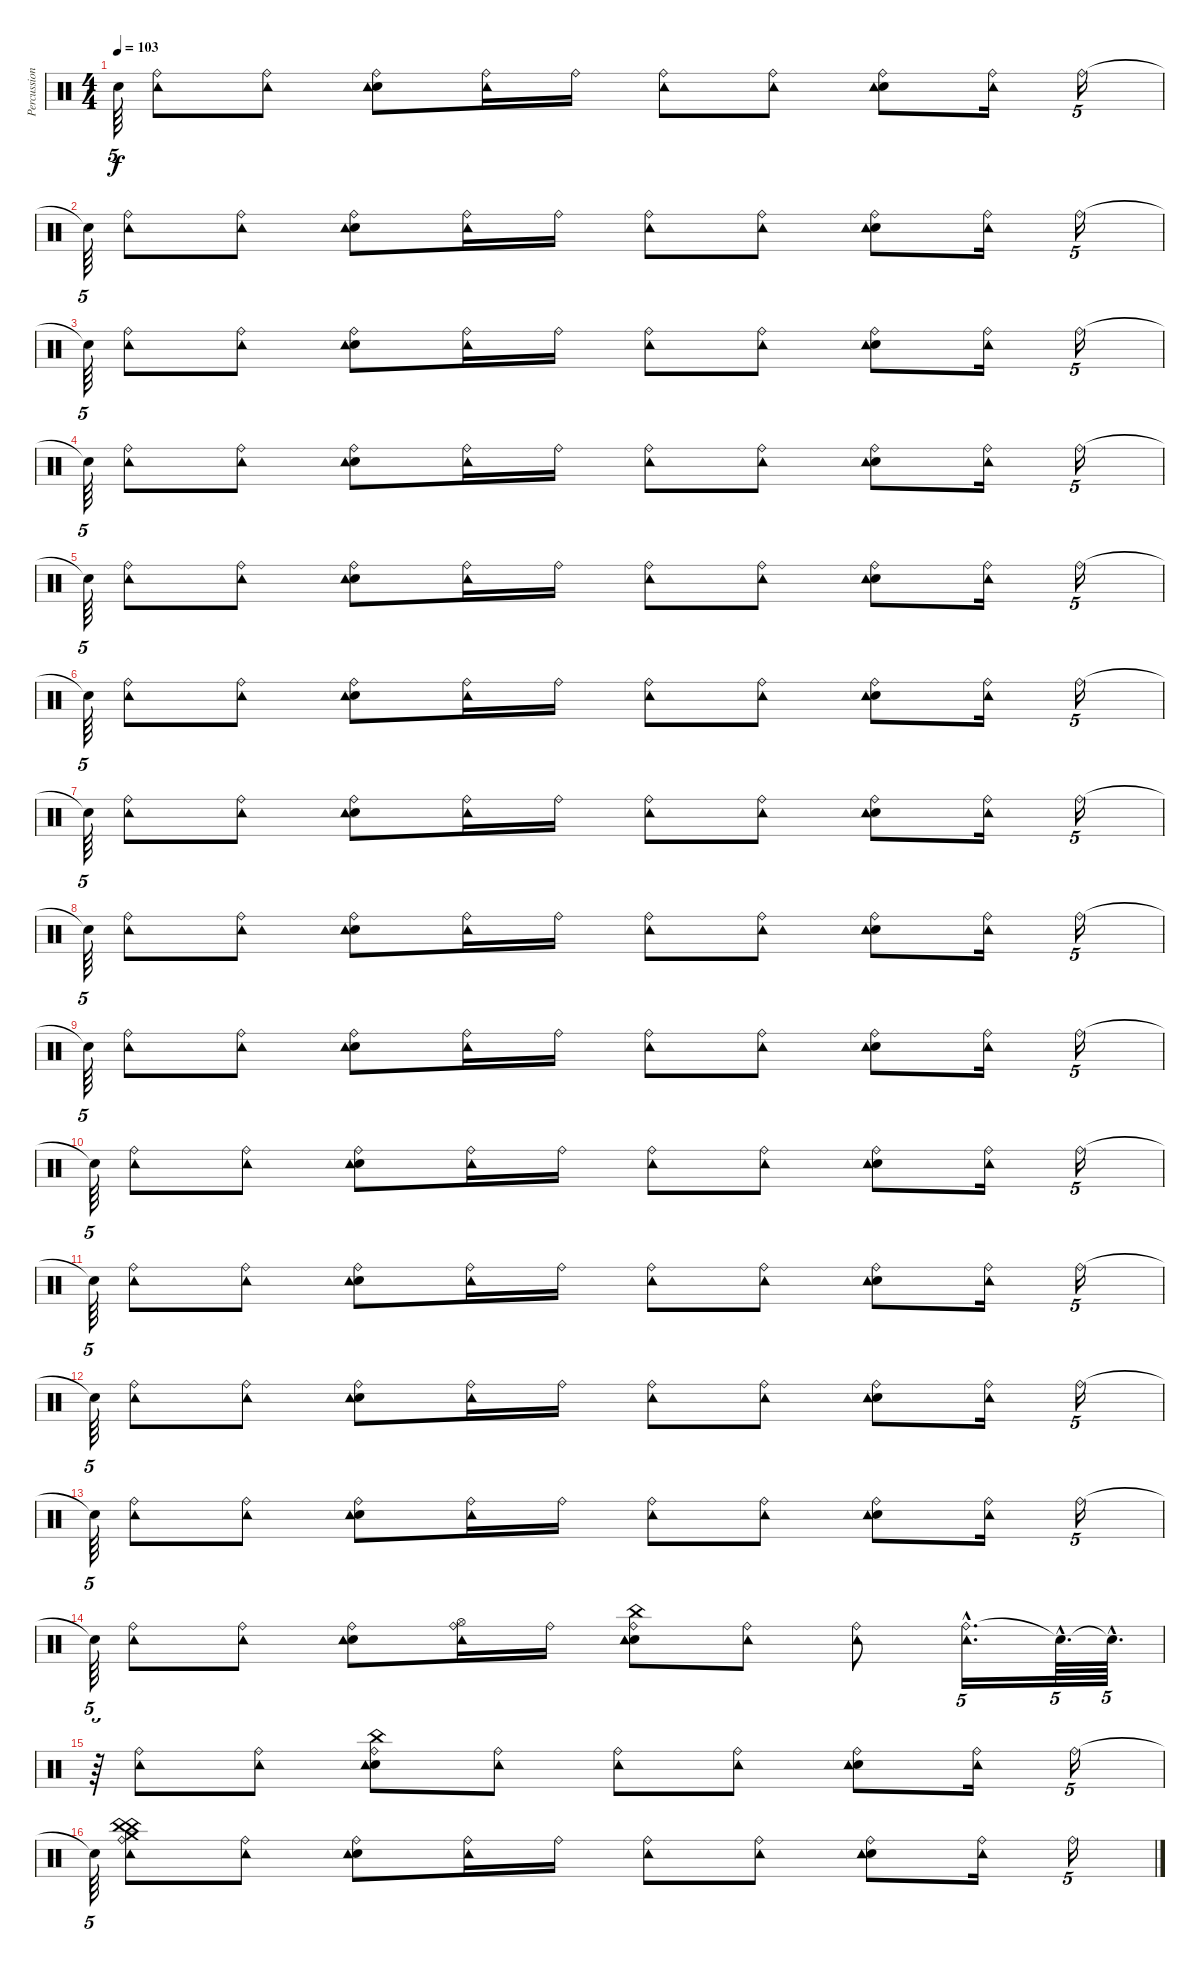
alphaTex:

\track ("Percussion" "Percussion") {instrument percussion}
\staff {score}
\articulation defaults
\ts (4 4)
\tempo 103
\clef neutral
\ks c "Snare (hit)"{t}.64{tu (5 4) dy f}
("Ride (bell)" "Tambourine (hit)").8 ("Ride (bell)" "Tambourine (hit)").8 ("Snare (hit) 2" "Ride (bell)" "Tambourine (hit)").8 ("Ride (bell)" "Tambourine (hit)").16 "Ride (bell)".16 ("Ride (bell)" "Tambourine (hit)").8 ("Ride (bell)" "Tambourine (hit)").8 ("Snare (hit) 2" "Ride (bell)" "Tambourine (hit)").8 ("Ride (bell)" "Tambourine (hit)").16 "Ride (bell)".16{tu (5 4)} |
"Snare (hit)"{t}.64{tu (5 4)} ("Ride (bell)" "Tambourine (hit)").8 ("Ride (bell)" "Tambourine (hit)").8 ("Snare (hit) 2" "Ride (bell)" "Tambourine (hit)").8 ("Ride (bell)" "Tambourine (hit)").16 "Ride (bell)".16 ("Ride (bell)" "Tambourine (hit)").8 ("Ride (bell)" "Tambourine (hit)").8 ("Snare (hit) 2" "Ride (bell)" "Tambourine (hit)").8 ("Ride (bell)" "Tambourine (hit)").16 "Ride (bell)".16{tu (5 4)} |
"Snare (hit)"{t}.64{tu (5 4)} ("Ride (bell)" "Tambourine (hit)").8 ("Ride (bell)" "Tambourine (hit)").8 ("Snare (hit) 2" "Ride (bell)" "Tambourine (hit)").8 ("Ride (bell)" "Tambourine (hit)").16 "Ride (bell)".16 ("Ride (bell)" "Tambourine (hit)").8 ("Ride (bell)" "Tambourine (hit)").8 ("Snare (hit) 2" "Ride (bell)" "Tambourine (hit)").8 ("Ride (bell)" "Tambourine (hit)").16 "Ride (bell)".16{tu (5 4)} |
"Snare (hit)"{t}.64{tu (5 4)} ("Ride (bell)" "Tambourine (hit)").8 ("Ride (bell)" "Tambourine (hit)").8 ("Snare (hit) 2" "Ride (bell)" "Tambourine (hit)").8 ("Ride (bell)" "Tambourine (hit)").16 "Ride (bell)".16 ("Ride (bell)" "Tambourine (hit)").8 ("Ride (bell)" "Tambourine (hit)").8 ("Snare (hit) 2" "Ride (bell)" "Tambourine (hit)").8 ("Ride (bell)" "Tambourine (hit)").16 "Ride (bell)".16{tu (5 4)} |
"Snare (hit)"{t}.64{tu (5 4)} ("Ride (bell)" "Tambourine (hit)").8 ("Ride (bell)" "Tambourine (hit)").8 ("Snare (hit) 2" "Ride (bell)" "Tambourine (hit)").8 ("Ride (bell)" "Tambourine (hit)").16 "Ride (bell)".16 ("Ride (bell)" "Tambourine (hit)").8 ("Ride (bell)" "Tambourine (hit)").8 ("Snare (hit) 2" "Ride (bell)" "Tambourine (hit)").8 ("Ride (bell)" "Tambourine (hit)").16 "Ride (bell)".16{tu (5 4)} |
"Snare (hit)"{t}.64{tu (5 4)} ("Ride (bell)" "Tambourine (hit)").8 ("Ride (bell)" "Tambourine (hit)").8 ("Snare (hit) 2" "Ride (bell)" "Tambourine (hit)").8 ("Ride (bell)" "Tambourine (hit)").16 "Ride (bell)".16 ("Ride (bell)" "Tambourine (hit)").8 ("Ride (bell)" "Tambourine (hit)").8 ("Snare (hit) 2" "Ride (bell)" "Tambourine (hit)").8 ("Ride (bell)" "Tambourine (hit)").16 "Ride (bell)".16{tu (5 4)} |
"Snare (hit)"{t}.64{tu (5 4)} ("Ride (bell)" "Tambourine (hit)").8 ("Ride (bell)" "Tambourine (hit)").8 ("Snare (hit) 2" "Ride (bell)" "Tambourine (hit)").8 ("Ride (bell)" "Tambourine (hit)").16 "Ride (bell)".16 ("Ride (bell)" "Tambourine (hit)").8 ("Ride (bell)" "Tambourine (hit)").8 ("Snare (hit) 2" "Ride (bell)" "Tambourine (hit)").8 ("Ride (bell)" "Tambourine (hit)").16 "Ride (bell)".16{tu (5 4)} |
"Snare (hit)"{t}.64{tu (5 4)} ("Ride (bell)" "Tambourine (hit)").8 ("Ride (bell)" "Tambourine (hit)").8 ("Snare (hit) 2" "Ride (bell)" "Tambourine (hit)").8 ("Ride (bell)" "Tambourine (hit)").16 "Ride (bell)".16 ("Ride (bell)" "Tambourine (hit)").8 ("Ride (bell)" "Tambourine (hit)").8 ("Snare (hit) 2" "Ride (bell)" "Tambourine (hit)").8 ("Ride (bell)" "Tambourine (hit)").16 "Ride (bell)".16{tu (5 4)} |
"Snare (hit)"{t}.64{tu (5 4)} ("Ride (bell)" "Tambourine (hit)").8 ("Ride (bell)" "Tambourine (hit)").8 ("Snare (hit) 2" "Ride (bell)" "Tambourine (hit)").8 ("Ride (bell)" "Tambourine (hit)").16 "Ride (bell)".16 ("Ride (bell)" "Tambourine (hit)").8 ("Ride (bell)" "Tambourine (hit)").8 ("Snare (hit) 2" "Ride (bell)" "Tambourine (hit)").8 ("Ride (bell)" "Tambourine (hit)").16 "Ride (bell)".16{tu (5 4)} |
"Snare (hit)"{t}.64{tu (5 4)} ("Ride (bell)" "Tambourine (hit)").8 ("Ride (bell)" "Tambourine (hit)").8 ("Snare (hit) 2" "Ride (bell)" "Tambourine (hit)").8 ("Ride (bell)" "Tambourine (hit)").16 "Ride (bell)".16 ("Ride (bell)" "Tambourine (hit)").8 ("Ride (bell)" "Tambourine (hit)").8 ("Snare (hit) 2" "Ride (bell)" "Tambourine (hit)").8 ("Ride (bell)" "Tambourine (hit)").16 "Ride (bell)".16{tu (5 4)} |
"Snare (hit)"{t}.64{tu (5 4)} ("Ride (bell)" "Tambourine (hit)").8 ("Ride (bell)" "Tambourine (hit)").8 ("Snare (hit) 2" "Ride (bell)" "Tambourine (hit)").8 ("Ride (bell)" "Tambourine (hit)").16 "Ride (bell)".16 ("Ride (bell)" "Tambourine (hit)").8 ("Ride (bell)" "Tambourine (hit)").8 ("Snare (hit) 2" "Ride (bell)" "Tambourine (hit)").8 ("Ride (bell)" "Tambourine (hit)").16 "Ride (bell)".16{tu (5 4)} |
"Snare (hit)"{t}.64{tu (5 4)} ("Ride (bell)" "Tambourine (hit)").8 ("Ride (bell)" "Tambourine (hit)").8 ("Snare (hit) 2" "Ride (bell)" "Tambourine (hit)").8 ("Ride (bell)" "Tambourine (hit)").16 "Ride (bell)".16 ("Ride (bell)" "Tambourine (hit)").8 ("Ride (bell)" "Tambourine (hit)").8 ("Snare (hit) 2" "Ride (bell)" "Tambourine (hit)").8 ("Ride (bell)" "Tambourine (hit)").16 "Ride (bell)".16{tu (5 4)} |
"Snare (hit)"{t}.64{tu (5 4)} ("Ride (bell)" "Tambourine (hit)").8 ("Ride (bell)" "Tambourine (hit)").8 ("Snare (hit) 2" "Ride (bell)" "Tambourine (hit)").8 ("Ride (bell)" "Tambourine (hit)").16 "Ride (bell)".16 ("Ride (bell)" "Tambourine (hit)").8 ("Ride (bell)" "Tambourine (hit)").8 ("Snare (hit) 2" "Ride (bell)" "Tambourine (hit)").8 ("Ride (bell)" "Tambourine (hit)").16 "Ride (bell)".16{tu (5 4)} |
"Snare (hit)"{t}.64{tu (5 4)} ("Ride (bell)" "Tambourine (hit)").8 ("Ride (bell)" "Tambourine (hit)").8 ("Snare (hit) 2" "Ride (bell)" "Tambourine (hit)").8 ("Hi-Hat (open)" "Ride (bell)" "Tambourine (hit)").16 "Ride (bell)".16 ("China (hit)" "Snare (hit) 2" "Ride (bell)" "Tambourine (hit)").8 ("Ride (bell)" "Tambourine (hit)").8 ("Ride (bell)" "Tambourine (hit)").8 ("Ride (bell)" "Tambourine (hit)"{hac}).16{d tu (5 4)} "Snare (hit)"{hac t}.64{d tu (5 4)} "Snare (hit)"{hac t}.64{d tu (5 4)} |
r.64{tu (5 4)} ("Ride (bell)" "Tambourine (hit)").8 ("Ride (bell)" "Tambourine (hit)").8 ("Snare (hit) 2" "China (hit)" "Ride (bell)" "Tambourine (hit)").8 ("Ride (bell)" "Tambourine (hit)").8 ("Ride (bell)" "Tambourine (hit)").8 ("Ride (bell)" "Tambourine (hit)").8 ("Snare (hit) 2" "Ride (bell)" "Tambourine (hit)").8 ("Ride (bell)" "Tambourine (hit)").16 "Ride (bell)".16{tu (5 4)} |
"Snare (hit)"{t}.64{tu (5 4)} ("China (hit)" "Crash medium (hit)" "China (hit)" "Ride (bell)" "Tambourine (hit)").8 ("Ride (bell)" "Tambourine (hit)").8 ("Snare (hit) 2" "Ride (bell)" "Tambourine (hit)").8 ("Ride (bell)" "Tambourine (hit)").16 "Ride (bell)".16 ("Ride (bell)" "Tambourine (hit)").8 ("Ride (bell)" "Tambourine (hit)").8 ("Snare (hit) 2" "Ride (bell)" "Tambourine (hit)").8 ("Ride (bell)" "Tambourine (hit)").16 "Ride (bell)".16{tu (5 4)}
